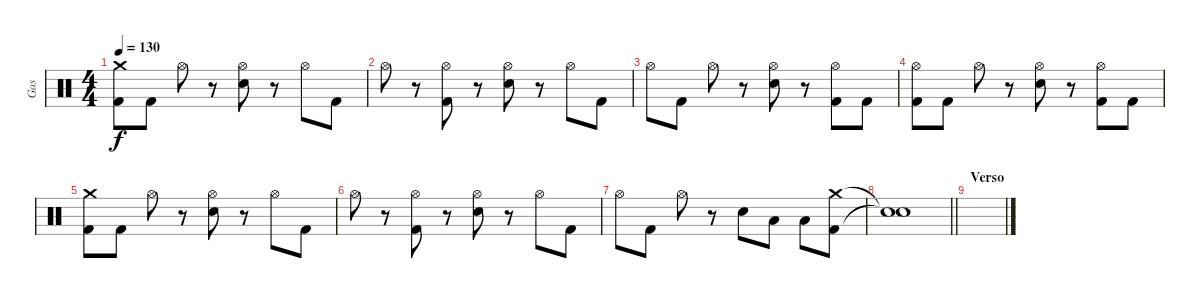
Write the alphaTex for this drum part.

\track ("Gas" "Gas") {instrument percussion}
\staff {score}
\articulation defaults
\ts (4 4)
\tempo 130
\clef neutral
\ks c
("Crash medium (hit)" "Kick (hit) 2").8{dy f} "Kick (hit) 2".8 "Hi-Hat (open)".8 r.8 ("Hi-Hat (open)" "Electric Snare (hit)").8 r.8 "Hi-Hat (open)".8 "Kick (hit) 2".8 |
"Hi-Hat (open)".8 r.8 ("Hi-Hat (open)" "Kick (hit) 2").8 r.8 ("Hi-Hat (open)" "Electric Snare (hit)").8 r.8 "Hi-Hat (open)".8 "Kick (hit) 2".8 |
"Hi-Hat (open)".8 "Kick (hit) 2".8 "Hi-Hat (open)".8 r.8 ("Hi-Hat (open)" "Electric Snare (hit)").8 r.8 ("Hi-Hat (open)" "Kick (hit) 2").8 "Kick (hit) 2".8 |
("Hi-Hat (open)" "Kick (hit) 2").8 "Kick (hit) 2".8 "Hi-Hat (open)".8 r.8 ("Hi-Hat (open)" "Electric Snare (hit)").8 r.8 ("Hi-Hat (open)" "Kick (hit) 2").8 "Kick (hit) 2".8 |
("Crash medium (hit)" "Kick (hit) 2").8 "Kick (hit) 2".8 "Hi-Hat (open)".8 r.8 ("Hi-Hat (open)" "Electric Snare (hit)").8 r.8 "Hi-Hat (open)".8 "Kick (hit) 2".8 |
"Hi-Hat (open)".8 r.8 ("Hi-Hat (open)" "Kick (hit) 2").8 r.8 ("Hi-Hat (open)" "Electric Snare (hit)").8 r.8 "Hi-Hat (open)".8 "Kick (hit) 2".8 |
"Hi-Hat (open)".8 "Kick (hit) 2".8 "Hi-Hat (open)".8 r.8 "Electric Snare (hit)".8 "Low Tom (hit)".8 "Low Tom (hit)".8 ("Crash medium (hit)" "Kick (hit) 2").8 |
\barLineRight lightlight
("Snare (hit)"{t} "Snare (hit)"{t}).1 |
\section ("" "Verso")
